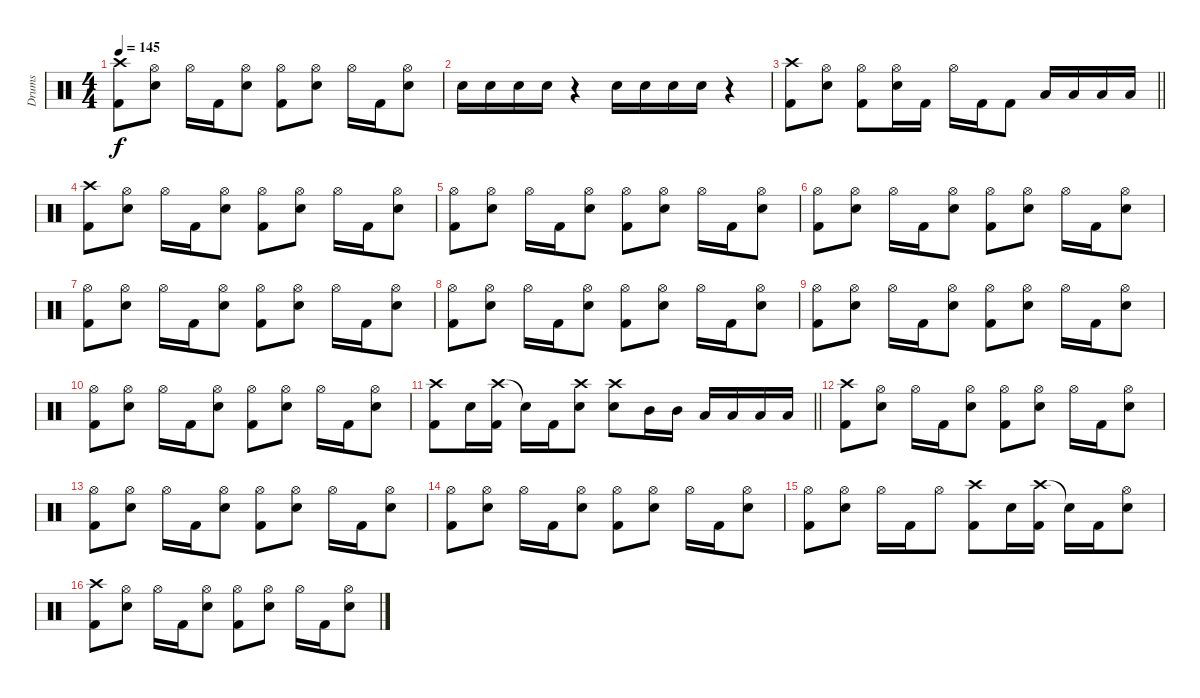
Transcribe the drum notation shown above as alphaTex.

\track ("Drums" "Drums") {instrument percussion}
\staff {score}
\articulation defaults
\ts (4 4)
\tempo 145
\clef neutral
\ks c
("Crash high (hit)" "Kick (hit) 2").8{dy f} ("Hi-Hat (open)" "Snare (hit) 2").8 "Hi-Hat (open)".16 "Kick (hit) 2".16 ("Hi-Hat (open)" "Snare (hit) 2").8 ("Hi-Hat (open)" "Kick (hit) 2").8 ("Hi-Hat (open)" "Snare (hit) 2").8 "Hi-Hat (open)".16 "Kick (hit) 2".16 ("Hi-Hat (open)" "Snare (hit) 2").8 |
"Snare (hit) 2".16 "Snare (hit) 2".16 "Snare (hit) 2".16 "Snare (hit) 2".16 r.4 "Snare (hit) 2".16 "Snare (hit) 2".16 "Snare (hit) 2".16 "Snare (hit) 2".16 r.4 |
\barLineRight lightlight
("Crash high (hit)" "Kick (hit) 2").8 ("Hi-Hat (open)" "Snare (hit) 2").8 ("Hi-Hat (open)" "Kick (hit) 2").8 ("Hi-Hat (open)" "Snare (hit) 2").16 "Kick (hit) 2".16 "Hi-Hat (open)".16 "Kick (hit) 2".16 "Kick (hit) 2".8 "Low Tom (hit)".16 "Low Tom (hit)".16 "Low Floor Tom (hit)".16 "Low Floor Tom (hit)".16 |
("Crash high (hit)" "Kick (hit) 2").8 ("Hi-Hat (open)" "Snare (hit) 2").8 "Hi-Hat (open)".16 "Kick (hit) 2".16 ("Hi-Hat (open)" "Snare (hit) 2").8 ("Hi-Hat (open)" "Kick (hit) 2").8 ("Hi-Hat (open)" "Snare (hit) 2").8 "Hi-Hat (open)".16 "Kick (hit) 2".16 ("Hi-Hat (open)" "Snare (hit) 2").8 |
("Hi-Hat (open)" "Kick (hit) 2").8 ("Hi-Hat (open)" "Snare (hit) 2").8 "Hi-Hat (open)".16 "Kick (hit) 2".16 ("Hi-Hat (open)" "Snare (hit) 2").8 ("Hi-Hat (open)" "Kick (hit) 2").8 ("Hi-Hat (open)" "Snare (hit) 2").8 "Hi-Hat (open)".16 "Kick (hit) 2".16 ("Hi-Hat (open)" "Snare (hit) 2").8 |
("Hi-Hat (open)" "Kick (hit) 2").8 ("Hi-Hat (open)" "Snare (hit) 2").8 "Hi-Hat (open)".16 "Kick (hit) 2".16 ("Hi-Hat (open)" "Snare (hit) 2").8 ("Hi-Hat (open)" "Kick (hit) 2").8 ("Hi-Hat (open)" "Snare (hit) 2").8 "Hi-Hat (open)".16 "Kick (hit) 2".16 ("Hi-Hat (open)" "Snare (hit) 2").8 |
("Hi-Hat (open)" "Kick (hit) 2").8 ("Hi-Hat (open)" "Snare (hit) 2").8 "Hi-Hat (open)".16 "Kick (hit) 2".16 ("Hi-Hat (open)" "Snare (hit) 2").8 ("Hi-Hat (open)" "Kick (hit) 2").8 ("Hi-Hat (open)" "Snare (hit) 2").8 "Hi-Hat (open)".16 "Kick (hit) 2".16 ("Hi-Hat (open)" "Snare (hit) 2").8 |
("Hi-Hat (open)" "Kick (hit) 2").8 ("Hi-Hat (open)" "Snare (hit) 2").8 "Hi-Hat (open)".16 "Kick (hit) 2".16 ("Hi-Hat (open)" "Snare (hit) 2").8 ("Hi-Hat (open)" "Kick (hit) 2").8 ("Hi-Hat (open)" "Snare (hit) 2").8 "Hi-Hat (open)".16 "Kick (hit) 2".16 ("Hi-Hat (open)" "Snare (hit) 2").8 |
("Hi-Hat (open)" "Kick (hit) 2").8 ("Hi-Hat (open)" "Snare (hit) 2").8 "Hi-Hat (open)".16 "Kick (hit) 2".16 ("Hi-Hat (open)" "Snare (hit) 2").8 ("Hi-Hat (open)" "Kick (hit) 2").8 ("Hi-Hat (open)" "Snare (hit) 2").8 "Hi-Hat (open)".16 "Kick (hit) 2".16 ("Hi-Hat (open)" "Snare (hit) 2").8 |
("Hi-Hat (open)" "Kick (hit) 2").8 ("Hi-Hat (open)" "Snare (hit) 2").8 "Hi-Hat (open)".16 "Kick (hit) 2".16 ("Hi-Hat (open)" "Snare (hit) 2").8 ("Hi-Hat (open)" "Kick (hit) 2").8 ("Hi-Hat (open)" "Snare (hit) 2").8 "Hi-Hat (open)".16 "Kick (hit) 2".16 ("Hi-Hat (open)" "Snare (hit) 2").8 |
\barLineRight lightlight
("Crash high (hit)" "Kick (hit) 2").8 "Snare (hit) 2".16 ("Crash high (hit)" "Kick (hit) 2").16 "Snare (hit)"{t}.16 "Kick (hit) 2".16 ("Crash high (hit)" "Snare (hit) 2").8 ("Crash high (hit)" "Snare (hit) 2").8 "Mid Tom (hit)".16 "Mid Tom (hit)".16 "Low Tom (hit)".16 "Low Tom (hit)".16 "Low Floor Tom (hit)".16 "Low Floor Tom (hit)".16 |
("Crash high (hit)" "Kick (hit) 2").8 ("Hi-Hat (open)" "Snare (hit) 2").8 "Hi-Hat (open)".16 "Kick (hit) 2".16 ("Hi-Hat (open)" "Snare (hit) 2").8 ("Hi-Hat (open)" "Kick (hit) 2").8 ("Hi-Hat (open)" "Snare (hit) 2").8 "Hi-Hat (open)".16 "Kick (hit) 2".16 ("Hi-Hat (open)" "Snare (hit) 2").8 |
("Hi-Hat (open)" "Kick (hit) 2").8 ("Hi-Hat (open)" "Snare (hit) 2").8 "Hi-Hat (open)".16 "Kick (hit) 2".16 ("Hi-Hat (open)" "Snare (hit) 2").8 ("Hi-Hat (open)" "Kick (hit) 2").8 ("Hi-Hat (open)" "Snare (hit) 2").8 "Hi-Hat (open)".16 "Kick (hit) 2".16 ("Hi-Hat (open)" "Snare (hit) 2").8 |
("Hi-Hat (open)" "Kick (hit) 2").8 ("Hi-Hat (open)" "Snare (hit) 2").8 "Hi-Hat (open)".16 "Kick (hit) 2".16 ("Hi-Hat (open)" "Snare (hit) 2").8 ("Hi-Hat (open)" "Kick (hit) 2").8 ("Hi-Hat (open)" "Snare (hit) 2").8 "Hi-Hat (open)".16 "Kick (hit) 2".16 ("Hi-Hat (open)" "Snare (hit) 2").8 |
("Hi-Hat (open)" "Kick (hit) 2").8 ("Hi-Hat (open)" "Snare (hit) 2").8 "Hi-Hat (open)".16 "Kick (hit) 2".16 "Hi-Hat (open)".8 ("Crash high (hit)" "Kick (hit) 2").8 "Snare (hit) 2".16 ("Crash high (hit)" "Kick (hit) 2").16 "Snare (hit)"{t}.16 "Kick (hit) 2".16 ("Hi-Hat (open)" "Snare (hit) 2").8 |
("Crash high (hit)" "Kick (hit) 2").8 ("Hi-Hat (open)" "Snare (hit) 2").8 "Hi-Hat (open)".16 "Kick (hit) 2".16 ("Hi-Hat (open)" "Snare (hit) 2").8 ("Hi-Hat (open)" "Kick (hit) 2").8 ("Hi-Hat (open)" "Snare (hit) 2").8 "Hi-Hat (open)".16 "Kick (hit) 2".16 ("Hi-Hat (open)" "Snare (hit) 2").8
